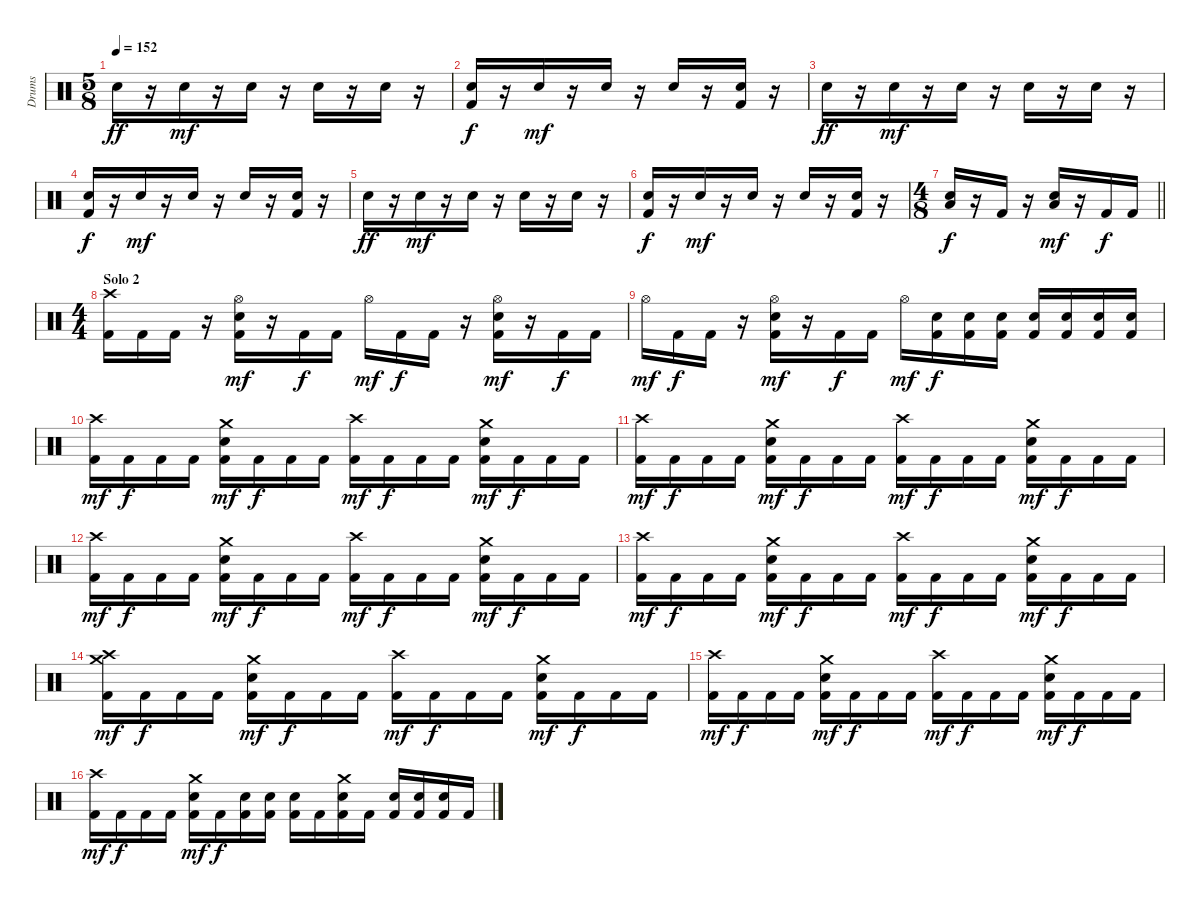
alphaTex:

\track ("Drums" "Drums") {instrument percussion}
\staff {score}
\articulation defaults
\ts (5 8)
\tempo 152
\clef neutral
\ks c "Snare (hit) 2".16{dy ff}
r.16 "Snare (hit) 2".16{dy mf} r.16 "Snare (hit) 2".16 r.16 "Snare (hit) 2".16 r.16 "Snare (hit) 2".16 r.16 |
("Snare (hit) 2" "Kick (hit) 2").16{dy f} r.16 "Snare (hit) 2".16{dy mf} r.16 "Snare (hit) 2".16 r.16 "Snare (hit) 2".16 r.16 ("Snare (hit) 2" "Kick (hit) 2").16 r.16 |
"Snare (hit) 2".16{dy ff} r.16 "Snare (hit) 2".16{dy mf} r.16 "Snare (hit) 2".16 r.16 "Snare (hit) 2".16 r.16 "Snare (hit) 2".16 r.16 |
("Snare (hit) 2" "Kick (hit) 2").16{dy f} r.16 "Snare (hit) 2".16{dy mf} r.16 "Snare (hit) 2".16 r.16 "Snare (hit) 2".16 r.16 ("Snare (hit) 2" "Kick (hit) 2").16 r.16 |
"Snare (hit) 2".16{dy ff} r.16 "Snare (hit) 2".16{dy mf} r.16 "Snare (hit) 2".16 r.16 "Snare (hit) 2".16 r.16 "Snare (hit) 2".16 r.16 |
("Snare (hit) 2" "Kick (hit) 2").16{dy f} r.16 "Snare (hit) 2".16{dy mf} r.16 "Snare (hit) 2".16 r.16 "Snare (hit) 2".16 r.16 ("Snare (hit) 2" "Kick (hit) 2").16 r.16 |
\ts (4 8)
\barLineRight lightlight
("Low Floor Tom (hit)" "Snare (hit) 2").16{dy f} r.16 "Kick (hit) 2".16 r.16 ("Low Floor Tom (hit)" "Snare (hit) 2").16{dy mf} r.16 "Kick (hit) 2".16{dy f} "Kick (hit) 2".16 |
\ts (4 4)
\section ("" "Solo 2")
("Crash high (hit)" "Kick (hit) 2").16 "Kick (hit) 2".16 "Kick (hit) 2".16 r.16 ("Hi-Hat (open)" "Snare (hit) 2" "Kick (hit) 2").16{dy mf} r.16 "Kick (hit) 2".16{dy f} "Kick (hit) 2".16 "Hi-Hat (open)".16{dy mf} "Kick (hit) 2".16{dy f} "Kick (hit) 2".16 r.16 ("Hi-Hat (open)" "Snare (hit) 2" "Kick (hit) 2").16{dy mf} r.16 "Kick (hit) 2".16{dy f} "Kick (hit) 2".16 |
"Hi-Hat (open)".16{dy mf} "Kick (hit) 2".16{dy f} "Kick (hit) 2".16 r.16 ("Hi-Hat (open)" "Snare (hit) 2" "Kick (hit) 2").16{dy mf} r.16 "Kick (hit) 2".16{dy f} "Kick (hit) 2".16 "Hi-Hat (open)".16{dy mf} ("Snare (hit) 2" "Kick (hit) 2").16{dy f} ("Snare (hit) 2" "Kick (hit) 2").16 ("Snare (hit) 2" "Kick (hit) 2").16 ("Snare (hit) 2" "Kick (hit) 2").16 ("Snare (hit) 2" "Kick (hit) 2").16 ("Snare (hit) 2" "Kick (hit) 2").16 ("Snare (hit) 2" "Kick (hit) 2").16 |
("Crash high (hit)" "Kick (hit) 2").16{dy mf} "Kick (hit) 2".16{dy f} "Kick (hit) 2".16 "Kick (hit) 2".16 ("Crash medium (hit)" "Snare (hit) 2" "Kick (hit) 2").16{dy mf} "Kick (hit) 2".16{dy f} "Kick (hit) 2".16 "Kick (hit) 2".16 ("Crash high (hit)" "Kick (hit) 2").16{dy mf} "Kick (hit) 2".16{dy f} "Kick (hit) 2".16 "Kick (hit) 2".16 ("Crash medium (hit)" "Snare (hit) 2" "Kick (hit) 2").16{dy mf} "Kick (hit) 2".16{dy f} "Kick (hit) 2".16 "Kick (hit) 2".16 |
("Crash high (hit)" "Kick (hit) 2").16{dy mf} "Kick (hit) 2".16{dy f} "Kick (hit) 2".16 "Kick (hit) 2".16 ("Crash medium (hit)" "Snare (hit) 2" "Kick (hit) 2").16{dy mf} "Kick (hit) 2".16{dy f} "Kick (hit) 2".16 "Kick (hit) 2".16 ("Crash high (hit)" "Kick (hit) 2").16{dy mf} "Kick (hit) 2".16{dy f} "Kick (hit) 2".16 "Kick (hit) 2".16 ("Crash medium (hit)" "Snare (hit) 2" "Kick (hit) 2").16{dy mf} "Kick (hit) 2".16{dy f} "Kick (hit) 2".16 "Kick (hit) 2".16 |
("Crash high (hit)" "Kick (hit) 2").16{dy mf} "Kick (hit) 2".16{dy f} "Kick (hit) 2".16 "Kick (hit) 2".16 ("Crash medium (hit)" "Snare (hit) 2" "Kick (hit) 2").16{dy mf} "Kick (hit) 2".16{dy f} "Kick (hit) 2".16 "Kick (hit) 2".16 ("Crash high (hit)" "Kick (hit) 2").16{dy mf} "Kick (hit) 2".16{dy f} "Kick (hit) 2".16 "Kick (hit) 2".16 ("Crash medium (hit)" "Snare (hit) 2" "Kick (hit) 2").16{dy mf} "Kick (hit) 2".16{dy f} "Kick (hit) 2".16 "Kick (hit) 2".16 |
("Crash high (hit)" "Kick (hit) 2").16{dy mf} "Kick (hit) 2".16{dy f} "Kick (hit) 2".16 "Kick (hit) 2".16 ("Crash medium (hit)" "Snare (hit) 2" "Kick (hit) 2").16{dy mf} "Kick (hit) 2".16{dy f} "Kick (hit) 2".16 "Kick (hit) 2".16 ("Crash high (hit)" "Kick (hit) 2").16{dy mf} "Kick (hit) 2".16{dy f} "Kick (hit) 2".16 "Kick (hit) 2".16 ("Crash medium (hit)" "Snare (hit) 2" "Kick (hit) 2").16{dy mf} "Kick (hit) 2".16{dy f} "Kick (hit) 2".16 "Kick (hit) 2".16 |
("Crash medium (hit)" "Crash high (hit)" "Kick (hit) 2").16{dy mf} "Kick (hit) 2".16{dy f} "Kick (hit) 2".16 "Kick (hit) 2".16 ("Crash medium (hit)" "Snare (hit) 2" "Kick (hit) 2").16{dy mf} "Kick (hit) 2".16{dy f} "Kick (hit) 2".16 "Kick (hit) 2".16 ("Crash high (hit)" "Kick (hit) 2").16{dy mf} "Kick (hit) 2".16{dy f} "Kick (hit) 2".16 "Kick (hit) 2".16 ("Crash medium (hit)" "Snare (hit) 2" "Kick (hit) 2").16{dy mf} "Kick (hit) 2".16{dy f} "Kick (hit) 2".16 "Kick (hit) 2".16 |
("Crash high (hit)" "Kick (hit) 2").16{dy mf} "Kick (hit) 2".16{dy f} "Kick (hit) 2".16 "Kick (hit) 2".16 ("Crash medium (hit)" "Snare (hit) 2" "Kick (hit) 2").16{dy mf} "Kick (hit) 2".16{dy f} "Kick (hit) 2".16 "Kick (hit) 2".16 ("Crash high (hit)" "Kick (hit) 2").16{dy mf} "Kick (hit) 2".16{dy f} "Kick (hit) 2".16 "Kick (hit) 2".16 ("Crash medium (hit)" "Snare (hit) 2" "Kick (hit) 2").16{dy mf} "Kick (hit) 2".16{dy f} "Kick (hit) 2".16 "Kick (hit) 2".16 |
("Crash high (hit)" "Kick (hit) 2").16{dy mf} "Kick (hit) 2".16{dy f} "Kick (hit) 2".16 "Kick (hit) 2".16 ("Crash medium (hit)" "Snare (hit) 2" "Kick (hit) 2").16{dy mf} "Kick (hit) 2".16{dy f} ("Snare (hit) 2" "Kick (hit) 2").16 ("Snare (hit) 2" "Kick (hit) 2").16 ("Snare (hit) 2" "Kick (hit) 2").16 "Kick (hit) 2".16 ("Crash medium (hit)" "Snare (hit) 2" "Kick (hit) 2").16 "Kick (hit) 2".16 ("Snare (hit) 2" "Kick (hit) 2").16 ("Snare (hit) 2" "Kick (hit) 2").16 ("Snare (hit) 2" "Kick (hit) 2").16 "Kick (hit) 2".16
